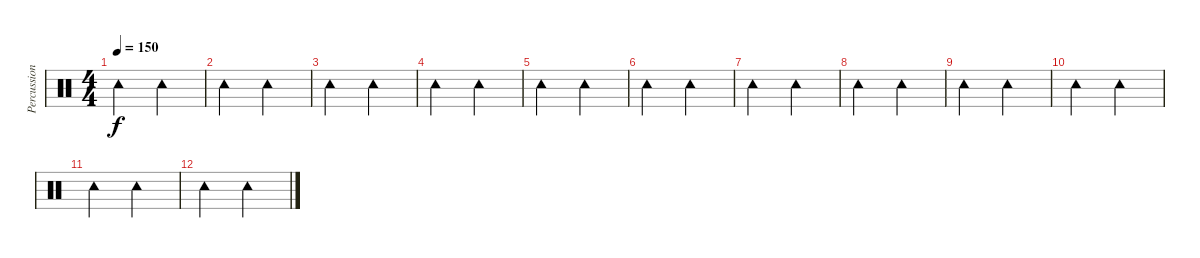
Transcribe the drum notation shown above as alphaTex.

\track ("Percussion" "Percussion") {instrument percussion}
\staff {score}
\articulation defaults
\ts (4 4)
\tempo 150
\clef neutral
\ks c "Tambourine (hit)".2{dy f} "Tambourine (hit)".2
|
"Tambourine (hit)".2 "Tambourine (hit)".2 |
"Tambourine (hit)".2 "Tambourine (hit)".2 |
"Tambourine (hit)".2 "Tambourine (hit)".2 |
"Tambourine (hit)".2 "Tambourine (hit)".2 |
"Tambourine (hit)".2 "Tambourine (hit)".2 |
"Tambourine (hit)".2 "Tambourine (hit)".2 |
"Tambourine (hit)".2 "Tambourine (hit)".2 |
"Tambourine (hit)".2 "Tambourine (hit)".2 |
"Tambourine (hit)".2 "Tambourine (hit)".2 |
"Tambourine (hit)".2 "Tambourine (hit)".2 |
"Tambourine (hit)".2 "Tambourine (hit)".2
